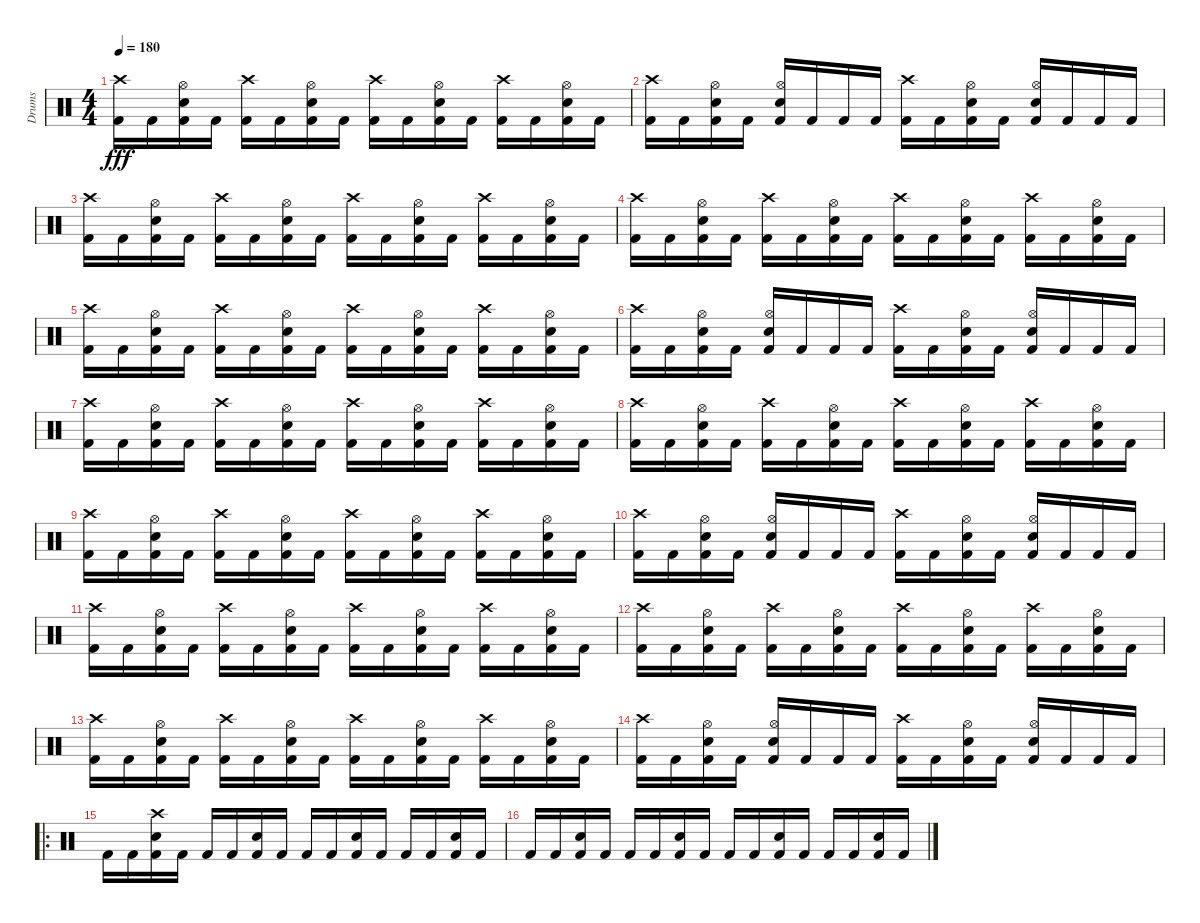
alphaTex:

\track ("Drums" "Drums") {instrument percussion}
\staff {score}
\articulation defaults
\ts (4 4)
\tempo 180
\clef neutral
\ks c
("Crash high (hit)" "Kick (hit) 2").16{dy fff} "Kick (hit) 2".16 ("Hi-Hat (open)" "Snare (hit) 2" "Kick (hit) 2").16 "Kick (hit) 2".16 ("Crash high (hit)" "Kick (hit) 2").16 "Kick (hit) 2".16 ("Hi-Hat (open)" "Snare (hit) 2" "Kick (hit) 2").16 "Kick (hit) 2".16 ("Crash high (hit)" "Kick (hit) 2").16 "Kick (hit) 2".16 ("Hi-Hat (open)" "Snare (hit) 2" "Kick (hit) 2").16 "Kick (hit) 2".16 ("Crash high (hit)" "Kick (hit) 2").16 "Kick (hit) 2".16 ("Hi-Hat (open)" "Snare (hit) 2" "Kick (hit) 2").16 "Kick (hit) 2".16 |
("Crash high (hit)" "Kick (hit) 2").16 "Kick (hit) 2".16 ("Hi-Hat (open)" "Snare (hit) 2" "Kick (hit) 2").16 "Kick (hit) 2".16 ("Hi-Hat (open)" "Snare (hit) 2" "Kick (hit) 2").16 "Kick (hit) 2".16 "Kick (hit) 2".16 "Kick (hit) 2".16 ("Crash high (hit)" "Kick (hit) 2").16 "Kick (hit) 2".16 ("Hi-Hat (open)" "Snare (hit) 2" "Kick (hit) 2").16 "Kick (hit) 2".16 ("Hi-Hat (open)" "Snare (hit) 2" "Kick (hit) 2").16 "Kick (hit) 2".16 "Kick (hit) 2".16 "Kick (hit) 2".16 |
("Crash high (hit)" "Kick (hit) 2").16 "Kick (hit) 2".16 ("Hi-Hat (open)" "Snare (hit) 2" "Kick (hit) 2").16 "Kick (hit) 2".16 ("Crash high (hit)" "Kick (hit) 2").16 "Kick (hit) 2".16 ("Hi-Hat (open)" "Snare (hit) 2" "Kick (hit) 2").16 "Kick (hit) 2".16 ("Crash high (hit)" "Kick (hit) 2").16 "Kick (hit) 2".16 ("Hi-Hat (open)" "Snare (hit) 2" "Kick (hit) 2").16 "Kick (hit) 2".16 ("Crash high (hit)" "Kick (hit) 2").16 "Kick (hit) 2".16 ("Hi-Hat (open)" "Snare (hit) 2" "Kick (hit) 2").16 "Kick (hit) 2".16 |
("Crash high (hit)" "Kick (hit) 2").16 "Kick (hit) 2".16 ("Hi-Hat (open)" "Snare (hit) 2" "Kick (hit) 2").16 "Kick (hit) 2".16 ("Crash high (hit)" "Kick (hit) 2").16 "Kick (hit) 2".16 ("Hi-Hat (open)" "Snare (hit) 2" "Kick (hit) 2").16 "Kick (hit) 2".16 ("Crash high (hit)" "Kick (hit) 2").16 "Kick (hit) 2".16 ("Hi-Hat (open)" "Snare (hit) 2" "Kick (hit) 2").16 "Kick (hit) 2".16 ("Crash high (hit)" "Kick (hit) 2").16 "Kick (hit) 2".16 ("Hi-Hat (open)" "Snare (hit) 2" "Kick (hit) 2").16 "Kick (hit) 2".16 |
("Crash high (hit)" "Kick (hit) 2").16 "Kick (hit) 2".16 ("Hi-Hat (open)" "Snare (hit) 2" "Kick (hit) 2").16 "Kick (hit) 2".16 ("Crash high (hit)" "Kick (hit) 2").16 "Kick (hit) 2".16 ("Hi-Hat (open)" "Snare (hit) 2" "Kick (hit) 2").16 "Kick (hit) 2".16 ("Crash high (hit)" "Kick (hit) 2").16 "Kick (hit) 2".16 ("Hi-Hat (open)" "Snare (hit) 2" "Kick (hit) 2").16 "Kick (hit) 2".16 ("Crash high (hit)" "Kick (hit) 2").16 "Kick (hit) 2".16 ("Hi-Hat (open)" "Snare (hit) 2" "Kick (hit) 2").16 "Kick (hit) 2".16 |
("Crash high (hit)" "Kick (hit) 2").16 "Kick (hit) 2".16 ("Hi-Hat (open)" "Snare (hit) 2" "Kick (hit) 2").16 "Kick (hit) 2".16 ("Hi-Hat (open)" "Snare (hit) 2" "Kick (hit) 2").16 "Kick (hit) 2".16 "Kick (hit) 2".16 "Kick (hit) 2".16 ("Crash high (hit)" "Kick (hit) 2").16 "Kick (hit) 2".16 ("Hi-Hat (open)" "Snare (hit) 2" "Kick (hit) 2").16 "Kick (hit) 2".16 ("Hi-Hat (open)" "Snare (hit) 2" "Kick (hit) 2").16 "Kick (hit) 2".16 "Kick (hit) 2".16 "Kick (hit) 2".16 |
("Crash high (hit)" "Kick (hit) 2").16 "Kick (hit) 2".16 ("Hi-Hat (open)" "Snare (hit) 2" "Kick (hit) 2").16 "Kick (hit) 2".16 ("Crash high (hit)" "Kick (hit) 2").16 "Kick (hit) 2".16 ("Hi-Hat (open)" "Snare (hit) 2" "Kick (hit) 2").16 "Kick (hit) 2".16 ("Crash high (hit)" "Kick (hit) 2").16 "Kick (hit) 2".16 ("Hi-Hat (open)" "Snare (hit) 2" "Kick (hit) 2").16 "Kick (hit) 2".16 ("Crash high (hit)" "Kick (hit) 2").16 "Kick (hit) 2".16 ("Hi-Hat (open)" "Snare (hit) 2" "Kick (hit) 2").16 "Kick (hit) 2".16 |
("Crash high (hit)" "Kick (hit) 2").16 "Kick (hit) 2".16 ("Hi-Hat (open)" "Snare (hit) 2" "Kick (hit) 2").16 "Kick (hit) 2".16 ("Crash high (hit)" "Kick (hit) 2").16 "Kick (hit) 2".16 ("Hi-Hat (open)" "Snare (hit) 2" "Kick (hit) 2").16 "Kick (hit) 2".16 ("Crash high (hit)" "Kick (hit) 2").16 "Kick (hit) 2".16 ("Hi-Hat (open)" "Snare (hit) 2" "Kick (hit) 2").16 "Kick (hit) 2".16 ("Crash high (hit)" "Kick (hit) 2").16 "Kick (hit) 2".16 ("Hi-Hat (open)" "Snare (hit) 2" "Kick (hit) 2").16 "Kick (hit) 2".16 |
("Crash high (hit)" "Kick (hit) 2").16 "Kick (hit) 2".16 ("Hi-Hat (open)" "Snare (hit) 2" "Kick (hit) 2").16 "Kick (hit) 2".16 ("Crash high (hit)" "Kick (hit) 2").16 "Kick (hit) 2".16 ("Hi-Hat (open)" "Snare (hit) 2" "Kick (hit) 2").16 "Kick (hit) 2".16 ("Crash high (hit)" "Kick (hit) 2").16 "Kick (hit) 2".16 ("Hi-Hat (open)" "Snare (hit) 2" "Kick (hit) 2").16 "Kick (hit) 2".16 ("Crash high (hit)" "Kick (hit) 2").16 "Kick (hit) 2".16 ("Hi-Hat (open)" "Snare (hit) 2" "Kick (hit) 2").16 "Kick (hit) 2".16 |
("Crash high (hit)" "Kick (hit) 2").16 "Kick (hit) 2".16 ("Hi-Hat (open)" "Snare (hit) 2" "Kick (hit) 2").16 "Kick (hit) 2".16 ("Hi-Hat (open)" "Snare (hit) 2" "Kick (hit) 2").16 "Kick (hit) 2".16 "Kick (hit) 2".16 "Kick (hit) 2".16 ("Crash high (hit)" "Kick (hit) 2").16 "Kick (hit) 2".16 ("Hi-Hat (open)" "Snare (hit) 2" "Kick (hit) 2").16 "Kick (hit) 2".16 ("Hi-Hat (open)" "Snare (hit) 2" "Kick (hit) 2").16 "Kick (hit) 2".16 "Kick (hit) 2".16 "Kick (hit) 2".16 |
("Crash high (hit)" "Kick (hit) 2").16 "Kick (hit) 2".16 ("Hi-Hat (open)" "Snare (hit) 2" "Kick (hit) 2").16 "Kick (hit) 2".16 ("Crash high (hit)" "Kick (hit) 2").16 "Kick (hit) 2".16 ("Hi-Hat (open)" "Snare (hit) 2" "Kick (hit) 2").16 "Kick (hit) 2".16 ("Crash high (hit)" "Kick (hit) 2").16 "Kick (hit) 2".16 ("Hi-Hat (open)" "Snare (hit) 2" "Kick (hit) 2").16 "Kick (hit) 2".16 ("Crash high (hit)" "Kick (hit) 2").16 "Kick (hit) 2".16 ("Hi-Hat (open)" "Snare (hit) 2" "Kick (hit) 2").16 "Kick (hit) 2".16 |
("Crash high (hit)" "Kick (hit) 2").16 "Kick (hit) 2".16 ("Hi-Hat (open)" "Snare (hit) 2" "Kick (hit) 2").16 "Kick (hit) 2".16 ("Crash high (hit)" "Kick (hit) 2").16 "Kick (hit) 2".16 ("Hi-Hat (open)" "Snare (hit) 2" "Kick (hit) 2").16 "Kick (hit) 2".16 ("Crash high (hit)" "Kick (hit) 2").16 "Kick (hit) 2".16 ("Hi-Hat (open)" "Snare (hit) 2" "Kick (hit) 2").16 "Kick (hit) 2".16 ("Crash high (hit)" "Kick (hit) 2").16 "Kick (hit) 2".16 ("Hi-Hat (open)" "Snare (hit) 2" "Kick (hit) 2").16 "Kick (hit) 2".16 |
("Crash high (hit)" "Kick (hit) 2").16 "Kick (hit) 2".16 ("Hi-Hat (open)" "Snare (hit) 2" "Kick (hit) 2").16 "Kick (hit) 2".16 ("Crash high (hit)" "Kick (hit) 2").16 "Kick (hit) 2".16 ("Hi-Hat (open)" "Snare (hit) 2" "Kick (hit) 2").16 "Kick (hit) 2".16 ("Crash high (hit)" "Kick (hit) 2").16 "Kick (hit) 2".16 ("Hi-Hat (open)" "Snare (hit) 2" "Kick (hit) 2").16 "Kick (hit) 2".16 ("Crash high (hit)" "Kick (hit) 2").16 "Kick (hit) 2".16 ("Hi-Hat (open)" "Snare (hit) 2" "Kick (hit) 2").16 "Kick (hit) 2".16 |
("Crash high (hit)" "Kick (hit) 2").16 "Kick (hit) 2".16 ("Hi-Hat (open)" "Snare (hit) 2" "Kick (hit) 2").16 "Kick (hit) 2".16 ("Hi-Hat (open)" "Snare (hit) 2" "Kick (hit) 2").16 "Kick (hit) 2".16 "Kick (hit) 2".16 "Kick (hit) 2".16 ("Crash high (hit)" "Kick (hit) 2").16 "Kick (hit) 2".16 ("Hi-Hat (open)" "Snare (hit) 2" "Kick (hit) 2").16 "Kick (hit) 2".16 ("Hi-Hat (open)" "Snare (hit) 2" "Kick (hit) 2").16 "Kick (hit) 2".16 "Kick (hit) 2".16 "Kick (hit) 2".16 |
\ro "Kick (hit) 2".16 "Kick (hit) 2".16
("Crash high (hit)" "Snare (hit) 2" "Kick (hit) 2").16 "Kick (hit) 2".16 "Kick (hit) 2".16 "Kick (hit) 2".16 ("Snare (hit) 2" "Kick (hit) 2").16 "Kick (hit) 2".16 "Kick (hit) 2".16 "Kick (hit) 2".16 ("Snare (hit) 2" "Kick (hit) 2").16 "Kick (hit) 2".16 "Kick (hit) 2".16 "Kick (hit) 2".16 ("Snare (hit) 2" "Kick (hit) 2").16 "Kick (hit) 2".16 |
"Kick (hit) 2".16 "Kick (hit) 2".16 ("Snare (hit) 2" "Kick (hit) 2").16 "Kick (hit) 2".16 "Kick (hit) 2".16 "Kick (hit) 2".16 ("Snare (hit) 2" "Kick (hit) 2").16 "Kick (hit) 2".16 "Kick (hit) 2".16 "Kick (hit) 2".16 ("Snare (hit) 2" "Kick (hit) 2").16 "Kick (hit) 2".16 "Kick (hit) 2".16 "Kick (hit) 2".16 ("Snare (hit) 2" "Kick (hit) 2").16 "Kick (hit) 2".16
